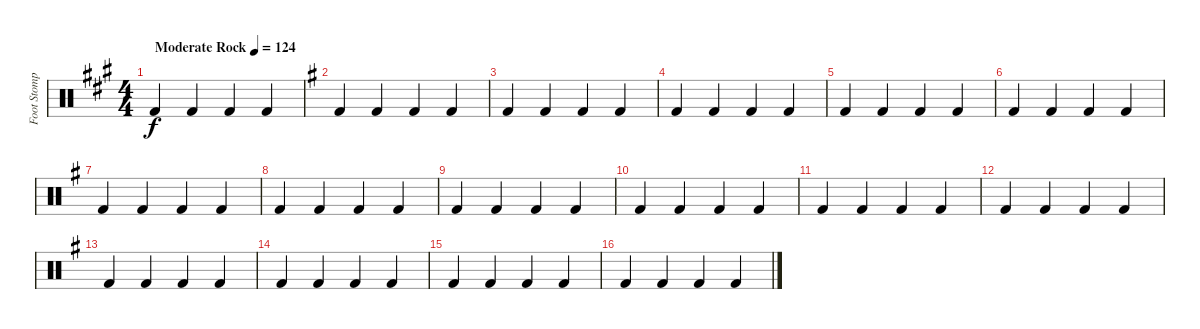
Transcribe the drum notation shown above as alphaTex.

\track ("Foot Stomp" "Foot Stomp") {instrument percussion}
\staff {score}
\articulation defaults
\ts (4 4)
\tempo (124 "Moderate Rock")
\clef neutral
\ks a "Kick (hit) 2".4{dy f} "Kick (hit) 2".4 "Kick (hit) 2".4 "Kick (hit) 2".4
|
\ks eminor "Kick (hit) 2".4 "Kick (hit) 2".4 "Kick (hit) 2".4 "Kick (hit) 2".4
|
"Kick (hit) 2".4 "Kick (hit) 2".4 "Kick (hit) 2".4 "Kick (hit) 2".4 |
"Kick (hit) 2".4 "Kick (hit) 2".4 "Kick (hit) 2".4 "Kick (hit) 2".4 |
"Kick (hit) 2".4 "Kick (hit) 2".4 "Kick (hit) 2".4 "Kick (hit) 2".4 |
"Kick (hit) 2".4 "Kick (hit) 2".4 "Kick (hit) 2".4 "Kick (hit) 2".4 |
"Kick (hit) 2".4 "Kick (hit) 2".4 "Kick (hit) 2".4 "Kick (hit) 2".4 |
"Kick (hit) 2".4 "Kick (hit) 2".4 "Kick (hit) 2".4 "Kick (hit) 2".4 |
"Kick (hit) 2".4 "Kick (hit) 2".4 "Kick (hit) 2".4 "Kick (hit) 2".4 |
"Kick (hit) 2".4 "Kick (hit) 2".4 "Kick (hit) 2".4 "Kick (hit) 2".4 |
"Kick (hit) 2".4 "Kick (hit) 2".4 "Kick (hit) 2".4 "Kick (hit) 2".4 |
"Kick (hit) 2".4 "Kick (hit) 2".4 "Kick (hit) 2".4 "Kick (hit) 2".4 |
"Kick (hit) 2".4 "Kick (hit) 2".4 "Kick (hit) 2".4 "Kick (hit) 2".4 |
"Kick (hit) 2".4 "Kick (hit) 2".4 "Kick (hit) 2".4 "Kick (hit) 2".4 |
"Kick (hit) 2".4 "Kick (hit) 2".4 "Kick (hit) 2".4 "Kick (hit) 2".4 |
"Kick (hit) 2".4 "Kick (hit) 2".4 "Kick (hit) 2".4 "Kick (hit) 2".4
